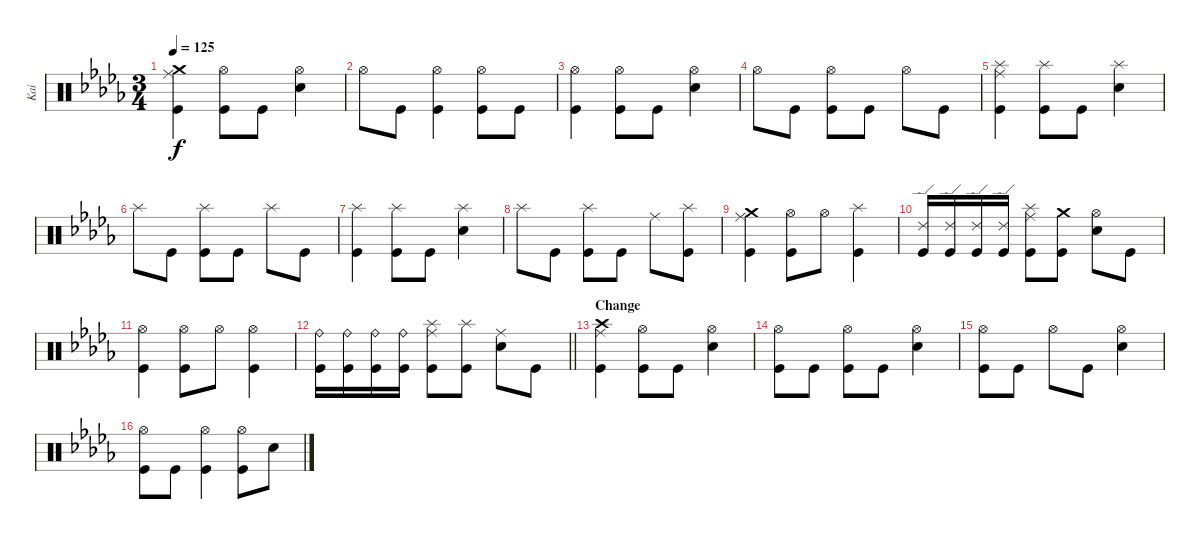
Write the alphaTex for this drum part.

\track ("Kai" "Kai") {instrument percussion}
\staff {score}
\articulation defaults
\ts (3 4)
\tempo 125
\clef neutral
\ks bbminor
("Crash medium (hit)" "Kick (hit)" "Ride (middle)").4{dy f} ("Kick (hit)" "Hi-Hat (open)").8 "Kick (hit)".8 ("Hi-Hat (open)" "Snare (hit) 2").4 |
"Hi-Hat (open)".8 "Kick (hit)".8 ("Kick (hit)" "Hi-Hat (open)").4 ("Kick (hit)" "Hi-Hat (open)").8 "Kick (hit)".8 |
("Kick (hit)" "Hi-Hat (open)").4 ("Kick (hit)" "Hi-Hat (open)").8 "Kick (hit)".8 ("Snare (hit) 2" "Hi-Hat (open)").4 |
"Hi-Hat (open)".8 "Kick (hit)".8 ("Kick (hit)" "Hi-Hat (open)").8 "Kick (hit)".8 "Hi-Hat (open)".8 "Kick (hit)".8 |
("Kick (hit)" "Ride (middle)" "Splash (hit)").4 ("Kick (hit)" "Splash (hit)").8 "Kick (hit)".8 ("Snare (hit) 2" "Splash (hit)").4 |
"Splash (hit)".8 "Kick (hit)".8 ("Kick (hit)" "Splash (hit)").8 "Kick (hit)".8 "Splash (hit)".8 "Kick (hit)".8 |
("Kick (hit)" "Splash (hit)").4 ("Kick (hit)" "Splash (hit)").8 "Kick (hit)".8 ("Snare (hit) 2" "Splash (hit)").4 |
"Splash (hit)".8 "Kick (hit)".8 ("Kick (hit)" "Splash (hit)").8 "Kick (hit)".8 "Ride (middle)".8 ("Splash (hit)" "Kick (hit)").8 |
("Crash medium (hit)" "Kick (hit)" "Ride (middle)").4 ("Hi-Hat (open)" "Kick (hit)").8 "Hi-Hat (open)".8 ("Splash (hit)" "Kick (hit)").4 |
("Ride (edge) 2" "Kick (hit)").16 ("Ride (edge) 2" "Kick (hit)").16 ("Ride (edge) 2" "Kick (hit)").16 ("Ride (edge) 2" "Kick (hit)").16 ("Splash (hit)" "Ride (middle)" "Kick (hit)").8 ("Crash medium (hit)" "Kick (hit)").8 ("Snare (hit) 2" "Hi-Hat (open)").8 "Kick (hit)".8 |
("Kick (hit)" "Hi-Hat (open)").4 ("Hi-Hat (open)" "Kick (hit)").8 "Hi-Hat (open)".8 ("Hi-Hat (open)" "Kick (hit)").4 |
\barLineRight lightlight
("Ride (bell)" "Kick (hit)").16 ("Ride (bell)" "Kick (hit)").16 ("Ride (bell)" "Kick (hit)").16 ("Ride (bell)" "Kick (hit)").16 ("Kick (hit)" "Ride (middle)" "Splash (hit)").8 ("Kick (hit)" "Splash (hit)").8 ("Snare (hit) 2" "Ride (middle)").8 "Kick (hit)".8 |
\section ("" "Change")
("Kick (hit)" "Ride (middle)" "Crash high (hit)").4 ("Kick (hit)" "Hi-Hat (open)").8 "Kick (hit)".8 ("Snare (hit) 2" "Hi-Hat (open)").4 |
("Kick (hit)" "Hi-Hat (open)").8 "Kick (hit)".8 ("Kick (hit)" "Hi-Hat (open)").8 "Kick (hit)".8 ("Hi-Hat (open)" "Snare (hit) 2").4 |
("Kick (hit)" "Hi-Hat (open)").8 "Kick (hit)".8 "Hi-Hat (open)".8 "Kick (hit)".8 ("Snare (hit) 2" "Hi-Hat (open)").4 |
("Kick (hit)" "Hi-Hat (open)").8 "Kick (hit)".8 ("Kick (hit)" "Hi-Hat (open)").4 ("Kick (hit)" "Hi-Hat (open)").8 "Snare (hit) 2".8
